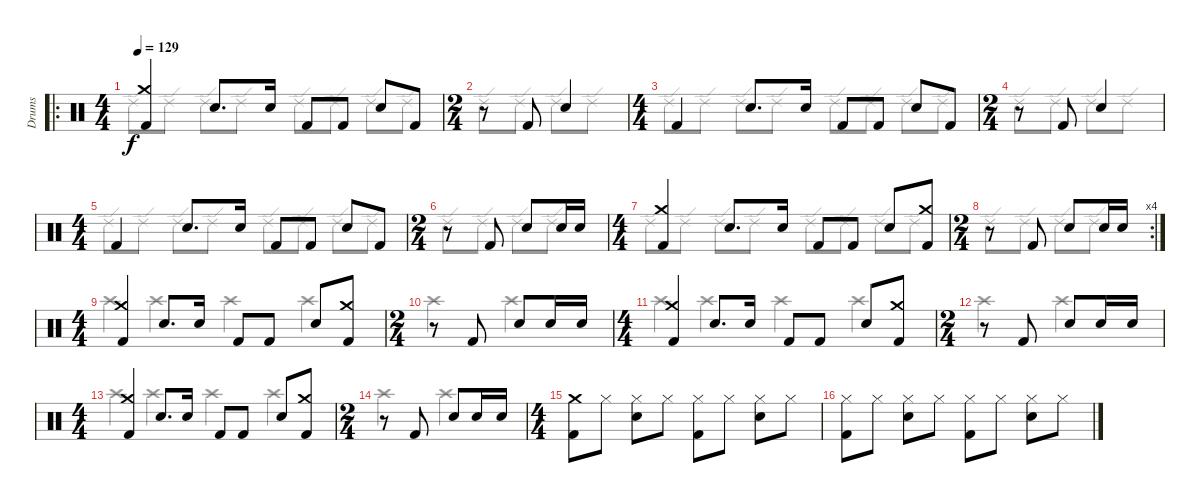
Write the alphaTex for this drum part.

\track ("Drums" "Drums") {instrument percussion}
\staff {score}
\articulation defaults
\voice
\ro
\ts (4 4)
\tempo 129
\clef neutral
\ks c
("Crash medium (hit)" "Kick (hit) 2").4{dy f} "Snare (hit) 2".8{d} "Snare (hit) 2".16 "Kick (hit) 2".8 "Kick (hit) 2".8 "Snare (hit) 2".8 "Kick (hit) 2".8 |
\ts (2 4)
r.8 "Kick (hit) 2".8 "Snare (hit) 2".4 |
\ts (4 4)
"Kick (hit) 2".4 "Snare (hit) 2".8{d} "Snare (hit) 2".16 "Kick (hit) 2".8 "Kick (hit) 2".8 "Snare (hit) 2".8 "Kick (hit) 2".8 |
\ts (2 4)
r.8 "Kick (hit) 2".8 "Snare (hit) 2".4 |
\ts (4 4)
"Kick (hit) 2".4 "Snare (hit) 2".8{d} "Snare (hit) 2".16 "Kick (hit) 2".8 "Kick (hit) 2".8 "Snare (hit) 2".8 "Kick (hit) 2".8 |
\ts (2 4)
r.8 "Kick (hit) 2".8 "Snare (hit) 2".8 "Snare (hit) 2".16 "Snare (hit) 2".16 |
\ts (4 4)
("Crash medium (hit)" "Kick (hit) 2").4 "Snare (hit) 2".8{d} "Snare (hit) 2".16 "Kick (hit) 2".8 "Kick (hit) 2".8 "Snare (hit) 2".8 ("Crash medium (hit)" "Kick (hit) 2").8 |
\rc 4
\ts (2 4)
r.8 "Kick (hit) 2".8 "Snare (hit) 2".8 "Snare (hit) 2".16 "Snare (hit) 2".16 |
\ts (4 4)
("Crash medium (hit)" "Kick (hit) 2").4 "Snare (hit) 2".8{d} "Snare (hit) 2".16 "Kick (hit) 2".8 "Kick (hit) 2".8 "Snare (hit) 2".8 ("Crash medium (hit)" "Kick (hit) 2").8 |
\ts (2 4)
r.8 "Kick (hit) 2".8 "Snare (hit) 2".8 "Snare (hit) 2".16 "Snare (hit) 2".16 |
\ts (4 4)
("Crash medium (hit)" "Kick (hit) 2").4 "Snare (hit) 2".8{d} "Snare (hit) 2".16 "Kick (hit) 2".8 "Kick (hit) 2".8 "Snare (hit) 2".8 ("Crash medium (hit)" "Kick (hit) 2").8 |
\ts (2 4)
r.8 "Kick (hit) 2".8 "Snare (hit) 2".8 "Snare (hit) 2".16 "Snare (hit) 2".16 |
\ts (4 4)
("Crash medium (hit)" "Kick (hit) 2").4 "Snare (hit) 2".8{d} "Snare (hit) 2".16 "Kick (hit) 2".8 "Kick (hit) 2".8 "Snare (hit) 2".8 ("Crash medium (hit)" "Kick (hit) 2").8 |
\ts (2 4)
r.8 "Kick (hit) 2".8 "Snare (hit) 2".8 "Snare (hit) 2".16 "Snare (hit) 2".16 |
\ts (4 4)
("Crash medium (hit)" "Kick (hit) 2").8 "Hi-Hat (closed)".8 ("Hi-Hat (closed)" "Snare (hit) 2").8 "Hi-Hat (closed)".8 ("Hi-Hat (closed)" "Kick (hit) 2").8 "Hi-Hat (closed)".8 ("Hi-Hat (closed)" "Snare (hit) 2").8 "Hi-Hat (closed)".8 |
("Hi-Hat (closed)" "Kick (hit) 2").8 "Hi-Hat (closed)".8 ("Hi-Hat (closed)" "Snare (hit) 2").8 "Hi-Hat (closed)".8 ("Hi-Hat (closed)" "Kick (hit) 2").8 "Hi-Hat (closed)".8 ("Hi-Hat (closed)" "Snare (hit) 2").8 "Hi-Hat (closed)".8
\voice
\clef neutral
\ottava regular
\simile none
\ks c "Ride (edge) 2".8{dy f} "Ride (edge) 2".8 "Ride (edge) 2".8 "Ride (edge) 2".8 "Ride (edge) 2".8 "Ride (edge) 2".8 "Ride (edge) 2".8 "Ride (edge) 2".8
|
"Ride (edge) 2".8 "Ride (edge) 2".8 "Ride (edge) 2".8 "Ride (edge) 2".8 |
"Ride (edge) 2".8 "Ride (edge) 2".8 "Ride (edge) 2".8 "Ride (edge) 2".8 "Ride (edge) 2".8 "Ride (edge) 2".8 "Ride (edge) 2".8 "Ride (edge) 2".8 |
"Ride (edge) 2".8 "Ride (edge) 2".8 "Ride (edge) 2".8 "Ride (edge) 2".8 |
"Ride (edge) 2".8 "Ride (edge) 2".8 "Ride (edge) 2".8 "Ride (edge) 2".8 "Ride (edge) 2".8 "Ride (edge) 2".8 "Ride (edge) 2".8 "Ride (edge) 2".8 |
"Ride (edge) 2".8 "Ride (edge) 2".8 "Ride (edge) 2".8 "Ride (edge) 2".8 |
"Ride (edge) 2".8 "Ride (edge) 2".8 "Ride (edge) 2".8 "Ride (edge) 2".8 "Ride (edge) 2".8 "Ride (edge) 2".8 "Ride (edge) 2".8 "Ride (edge) 2".8 |
"Ride (edge) 2".8 "Ride (edge) 2".8 "Ride (edge) 2".8 "Ride (edge) 2".8 |
"Crash high (hit)".4 "Crash high (hit)".4 "Crash high (hit)".4 "Crash high (hit)".4 |
"Crash high (hit)".4 "Crash high (hit)".4 |
"Crash high (hit)".4 "Crash high (hit)".4 "Crash high (hit)".4 "Crash high (hit)".4 |
"Crash high (hit)".4 "Crash high (hit)".4 |
"Crash high (hit)".4 "Crash high (hit)".4 "Crash high (hit)".4 "Crash high (hit)".4 |
"Crash high (hit)".4 "Crash high (hit)".4 |
|
